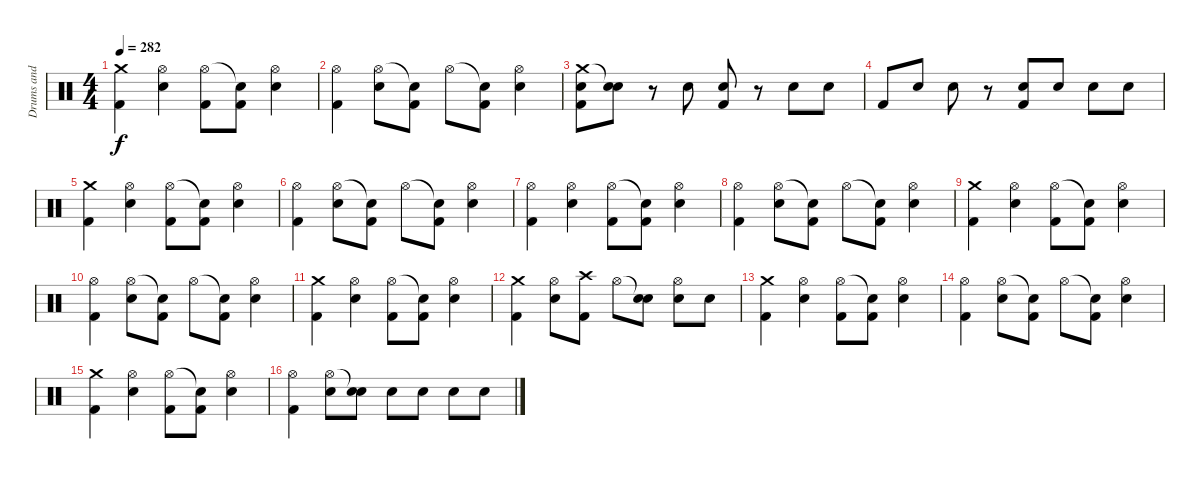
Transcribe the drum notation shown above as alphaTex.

\track ("Drums and Percussion" "Drums and ") {instrument percussion}
\staff {score}
\articulation defaults
\ts (4 4)
\tempo 282
\clef neutral
\ks c
("Crash medium (hit)" "Kick (hit) 2").4{dy f} ("Hi-Hat (open)" "Snare (hit) 2").4 ("Hi-Hat (open)" "Kick (hit) 2").8 ("Snare (hit)"{t} "Kick (hit) 2").8 ("Hi-Hat (open)" "Snare (hit) 2").4 |
("Hi-Hat (open)" "Kick (hit) 2").4 ("Hi-Hat (open)" "Snare (hit) 2").8 ("Snare (hit)"{t} "Kick (hit) 2").8 "Hi-Hat (open)".8 ("Snare (hit)"{t} "Kick (hit) 2").8 ("Hi-Hat (open)" "Snare (hit) 2").4 |
("Crash medium (hit)" "Snare (hit) 2" "Kick (hit) 2").8 ("Snare (hit)"{t} "Snare (hit) 2").8 r.8 "Snare (hit) 2".8 ("Snare (hit) 2" "Kick (hit) 2").8 r.8 "Snare (hit) 2".8 "Snare (hit) 2".8 |
"Kick (hit) 2".8 "Snare (hit) 2".8 "Snare (hit) 2".8 r.8 ("Snare (hit) 2" "Kick (hit) 2").8 "Snare (hit) 2".8 "Snare (hit) 2".8 "Snare (hit) 2".8 |
("Crash medium (hit)" "Kick (hit) 2").4 ("Hi-Hat (open)" "Snare (hit) 2").4 ("Hi-Hat (open)" "Kick (hit) 2").8 ("Snare (hit)"{t} "Kick (hit) 2").8 ("Hi-Hat (open)" "Snare (hit) 2").4 |
("Hi-Hat (open)" "Kick (hit) 2").4 ("Hi-Hat (open)" "Snare (hit) 2").8 ("Snare (hit)"{t} "Kick (hit) 2").8 "Hi-Hat (open)".8 ("Snare (hit)"{t} "Kick (hit) 2").8 ("Hi-Hat (open)" "Snare (hit) 2").4 |
("Hi-Hat (open)" "Kick (hit) 2").4 ("Hi-Hat (open)" "Snare (hit) 2").4 ("Hi-Hat (open)" "Kick (hit) 2").8 ("Snare (hit)"{t} "Kick (hit) 2").8 ("Hi-Hat (open)" "Snare (hit) 2").4 |
("Hi-Hat (open)" "Kick (hit) 2").4 ("Hi-Hat (open)" "Snare (hit) 2").8 ("Snare (hit)"{t} "Kick (hit) 2").8 "Hi-Hat (open)".8 ("Snare (hit)"{t} "Kick (hit) 2").8 ("Hi-Hat (open)" "Snare (hit) 2").4 |
("Crash medium (hit)" "Kick (hit) 2").4 ("Hi-Hat (open)" "Snare (hit) 2").4 ("Hi-Hat (open)" "Kick (hit) 2").8 ("Snare (hit)"{t} "Kick (hit) 2").8 ("Hi-Hat (open)" "Snare (hit) 2").4 |
("Hi-Hat (open)" "Kick (hit) 2").4 ("Hi-Hat (open)" "Snare (hit) 2").8 ("Snare (hit)"{t} "Kick (hit) 2").8 "Hi-Hat (open)".8 ("Snare (hit)"{t} "Kick (hit) 2").8 ("Hi-Hat (open)" "Snare (hit) 2").4 |
("Crash medium (hit)" "Kick (hit) 2").4 ("Hi-Hat (open)" "Snare (hit) 2").4 ("Hi-Hat (open)" "Kick (hit) 2").8 ("Snare (hit)"{t} "Kick (hit) 2").8 ("Hi-Hat (open)" "Snare (hit) 2").4 |
("Crash medium (hit)" "Kick (hit) 2").4 ("Hi-Hat (open)" "Snare (hit) 2").8 ("Crash high (hit)" "Kick (hit) 2").8 "Hi-Hat (open)".8 ("Snare (hit)"{t} "Snare (hit) 2").8 ("Hi-Hat (open)" "Snare (hit) 2").8 "Snare (hit) 2".8 |
("Crash medium (hit)" "Kick (hit) 2").4 ("Hi-Hat (open)" "Snare (hit) 2").4 ("Hi-Hat (open)" "Kick (hit) 2").8 ("Snare (hit)"{t} "Kick (hit) 2").8 ("Hi-Hat (open)" "Snare (hit) 2").4 |
("Hi-Hat (open)" "Kick (hit) 2").4 ("Hi-Hat (open)" "Snare (hit) 2").8 ("Snare (hit)"{t} "Kick (hit) 2").8 "Hi-Hat (open)".8 ("Snare (hit)"{t} "Kick (hit) 2").8 ("Hi-Hat (open)" "Snare (hit) 2").4 |
("Crash medium (hit)" "Kick (hit) 2").4 ("Hi-Hat (open)" "Snare (hit) 2").4 ("Hi-Hat (open)" "Kick (hit) 2").8 ("Snare (hit)"{t} "Kick (hit) 2").8 ("Hi-Hat (open)" "Snare (hit) 2").4 |
("Hi-Hat (open)" "Kick (hit) 2").4 ("Hi-Hat (open)" "Snare (hit) 2").8 ("Snare (hit)"{t} "Snare (hit) 2").8 "Snare (hit) 2".8 "Snare (hit) 2".8 "Snare (hit) 2".8 "Snare (hit) 2".8
